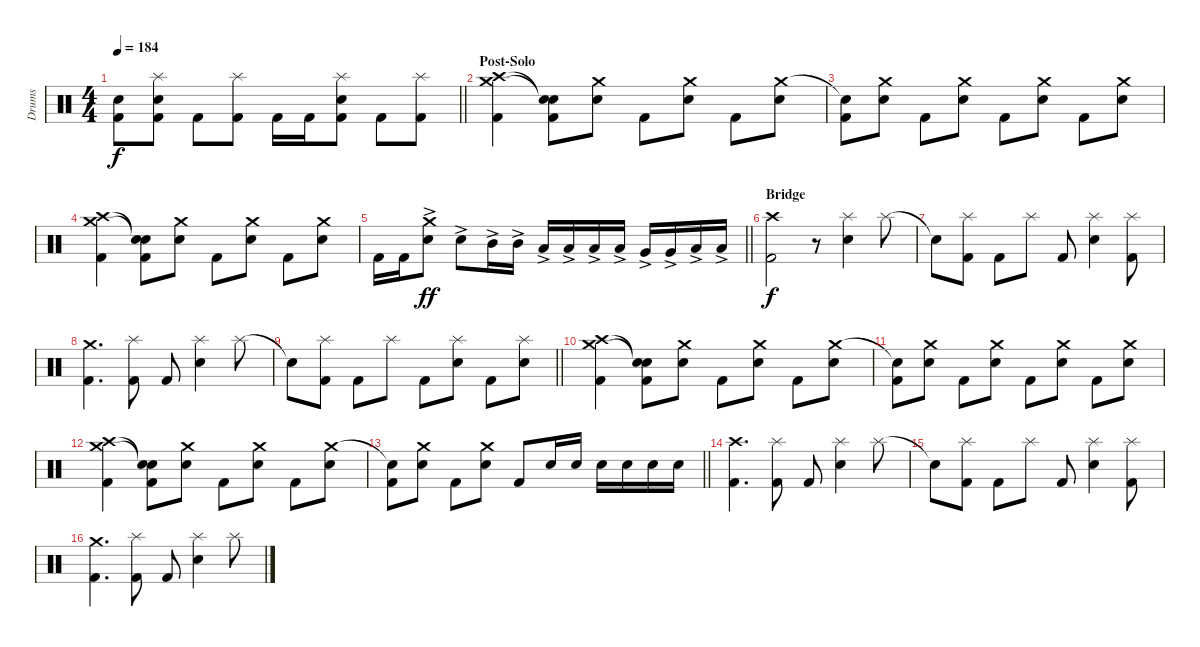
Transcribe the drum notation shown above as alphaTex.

\track ("Drums" "Drums") {instrument percussion}
\staff {score}
\articulation defaults
\ts (4 4)
\tempo 184
\clef neutral
\barLineRight lightlight
\ks c
("Kick (hit) 2" "Snare (hit)"{t}).8{dy f} ("Kick (hit) 2" "Snare (hit) 2" "Splash (hit)").8 "Kick (hit) 2".8 ("Kick (hit) 2" "Splash (hit)").8 "Kick (hit) 2".16 "Kick (hit) 2".16 ("Kick (hit) 2" "Snare (hit) 2" "Splash (hit)").8 "Kick (hit) 2".8 ("Kick (hit) 2" "Splash (hit)").8 |
\section ("" "Post-Solo")
("Kick (hit) 2" "Crash medium (hit)" "Crash high (hit)").4 ("Kick (hit) 2" "Snare (hit)"{t} "Snare (hit)"{t}).8 ("Snare (hit) 2" "Crash medium (hit)").8 "Kick (hit) 2".8 ("Snare (hit) 2" "Crash medium (hit)").8 "Kick (hit) 2".8 ("Snare (hit) 2" "Crash medium (hit)").8 |
("Kick (hit) 2" "Snare (hit)"{t}).8 ("Snare (hit) 2" "Crash medium (hit)").8 "Kick (hit) 2".8 ("Snare (hit) 2" "Crash medium (hit)").8 "Kick (hit) 2".8 ("Snare (hit) 2" "Crash medium (hit)").8 "Kick (hit) 2".8 ("Snare (hit) 2" "Crash medium (hit)").8 |
("Kick (hit) 2" "Crash medium (hit)" "Crash high (hit)").4 ("Kick (hit) 2" "Snare (hit)"{t} "Snare (hit)"{t}).8 ("Snare (hit) 2" "Crash medium (hit)").8 "Kick (hit) 2".8 ("Snare (hit) 2" "Crash medium (hit)").8 "Kick (hit) 2".8 ("Snare (hit) 2" "Crash medium (hit)").8 |
\barLineRight lightlight "Kick (hit) 2".16 "Kick (hit) 2".16
("Snare (hit) 2"{ac} "Crash medium (hit)").8{dy ff} "Snare (hit) 2"{ac}.8 "Mid Tom (hit)"{ac}.16 "Mid Tom (hit)"{ac}.16 "Low Tom (hit)"{ac}.16 "Low Tom (hit)"{ac}.16 "Low Tom (hit)"{ac}.16 "Low Tom (hit)"{ac}.16 "Very Low Tom (hit)"{ac}.16 "Very Low Tom (hit)"{ac}.16 "Low Floor Tom (hit)"{ac}.16 "Low Floor Tom (hit)"{ac}.16 |
\section ("" "Bridge")
("Kick (hit) 2" "Crash high (hit)").2{dy f} r.8 ("Snare (hit) 2" "Splash (hit)").4 "Splash (hit)".8 |
"Snare (hit)"{t}.8 ("Kick (hit) 2" "Splash (hit)").8 "Kick (hit) 2".8 "Splash (hit)".8 "Kick (hit) 2".8 ("Snare (hit) 2" "Splash (hit)").4 ("Kick (hit) 2" "Splash (hit)").8 |
("Kick (hit) 2" "Crash medium (hit)").4{d} ("Kick (hit) 2" "Splash (hit)").8 "Kick (hit) 2".8 ("Snare (hit) 2" "Splash (hit)").4 "Splash (hit)".8 |
\barLineRight lightlight "Snare (hit)"{t}.8
("Kick (hit) 2" "Splash (hit)").8 "Kick (hit) 2".8 "Splash (hit)".8 "Kick (hit) 2".8 ("Snare (hit) 2" "Splash (hit)").8 "Kick (hit) 2".8 ("Snare (hit) 2" "Splash (hit)").8 |
\section ("" "")
("Kick (hit) 2" "Crash medium (hit)" "Crash high (hit)").4 ("Kick (hit) 2" "Snare (hit)"{t} "Snare (hit)"{t}).8 ("Snare (hit) 2" "Crash medium (hit)").8 "Kick (hit) 2".8 ("Snare (hit) 2" "Crash medium (hit)").8 "Kick (hit) 2".8 ("Snare (hit) 2" "Crash medium (hit)").8 |
("Kick (hit) 2" "Snare (hit)"{t}).8 ("Snare (hit) 2" "Crash medium (hit)").8 "Kick (hit) 2".8 ("Snare (hit) 2" "Crash medium (hit)").8 "Kick (hit) 2".8 ("Snare (hit) 2" "Crash medium (hit)").8 "Kick (hit) 2".8 ("Snare (hit) 2" "Crash medium (hit)").8 |
("Kick (hit) 2" "Crash medium (hit)" "Crash high (hit)").4 ("Kick (hit) 2" "Snare (hit)"{t} "Snare (hit)"{t}).8 ("Snare (hit) 2" "Crash medium (hit)").8 "Kick (hit) 2".8 ("Snare (hit) 2" "Crash medium (hit)").8 "Kick (hit) 2".8 ("Snare (hit) 2" "Crash medium (hit)").8 |
\barLineRight lightlight
("Kick (hit) 2" "Snare (hit)"{t}).8 ("Snare (hit) 2" "Crash medium (hit)").8 "Kick (hit) 2".8 ("Snare (hit) 2" "Crash medium (hit)").8 "Kick (hit) 2".8 "Snare (hit) 2".16 "Snare (hit) 2".16 "Snare (hit) 2".16 "Snare (hit) 2".16 "Snare (hit) 2".16 "Snare (hit) 2".16 |
\section ("" "")
("Kick (hit) 2" "Crash high (hit)").4{d} ("Kick (hit) 2" "Splash (hit)").8 "Kick (hit) 2".8 ("Snare (hit) 2" "Splash (hit)").4 "Splash (hit)".8 |
"Snare (hit)"{t}.8 ("Kick (hit) 2" "Splash (hit)").8 "Kick (hit) 2".8 "Splash (hit)".8 "Kick (hit) 2".8 ("Snare (hit) 2" "Splash (hit)").4 ("Kick (hit) 2" "Splash (hit)").8 |
("Kick (hit) 2" "Crash medium (hit)").4{d} ("Kick (hit) 2" "Splash (hit)").8 "Kick (hit) 2".8 ("Snare (hit) 2" "Splash (hit)").4 "Splash (hit)".8
